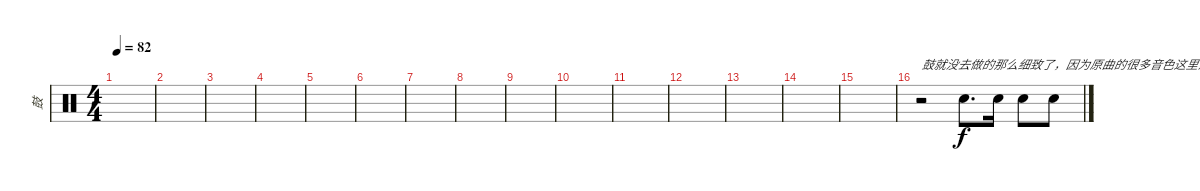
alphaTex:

\track ("鼓" "鼓") {instrument percussion}
\staff {score}
\articulation defaults
\ts (4 4)
\tempo 82
\clef neutral
\ks c
|
|
|
|
|
|
|
|
|
|
|
|
|
|
|
r.2{txt "鼓就没去做的那么细致了，因为原曲的很多音色这里没的"} "Electric Snare (hit)".8{d} "Electric Snare (hit)".16 "Electric Snare (hit)".8 "Electric Snare (hit)".8
